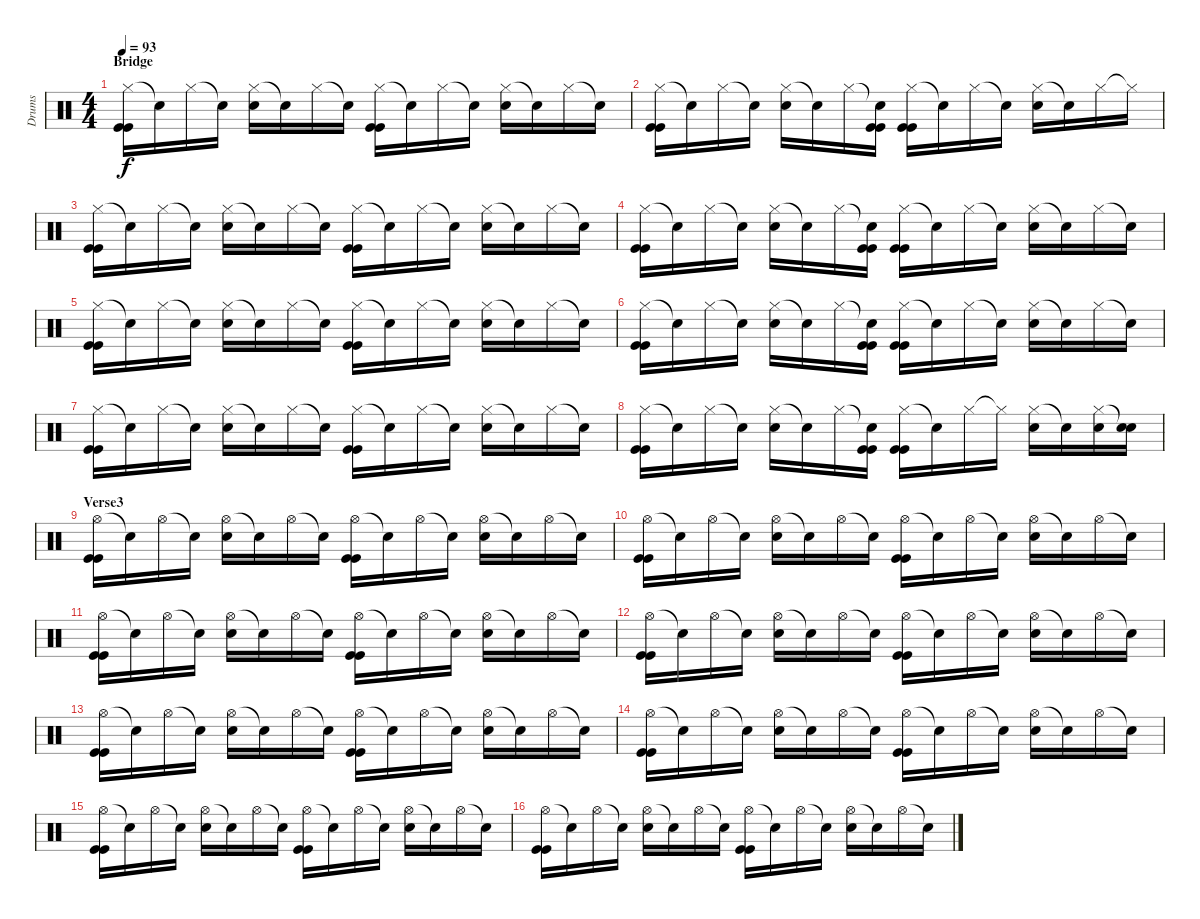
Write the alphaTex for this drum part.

\track ("Drums " "Drums ") {instrument percussion}
\staff {score}
\articulation defaults
\ts (4 4)
\section ("" "Bridge")
\tempo 93
\clef neutral
\ks c
("Hi-Hat (closed)" "Kick (hit)" "Kick (hit)").16{dy f} "Snare (hit)"{t}.16 "Hi-Hat (closed)".16 "Snare (hit)"{t}.16 ("Hi-Hat (closed)" "Snare (hit) 2").16 "Snare (hit)"{t}.16 "Hi-Hat (closed)".16 "Snare (hit)"{t}.16 ("Hi-Hat (closed)" "Kick (hit)" "Kick (hit)").16 "Snare (hit)"{t}.16 "Hi-Hat (closed)".16 "Snare (hit)"{t}.16 ("Hi-Hat (closed)" "Snare (hit) 2").16 "Snare (hit)"{t}.16 "Hi-Hat (closed)".16 "Snare (hit)"{t}.16 |
("Hi-Hat (closed)" "Kick (hit)" "Kick (hit)").16 "Snare (hit)"{t}.16 "Hi-Hat (closed)".16 "Snare (hit)"{t}.16 ("Hi-Hat (closed)" "Snare (hit) 2").16 "Snare (hit)"{t}.16 "Hi-Hat (closed)".16 ("Snare (hit)"{t} "Kick (hit)" "Kick (hit)").16 ("Hi-Hat (closed)" "Kick (hit)" "Kick (hit)").16 "Snare (hit)"{t}.16 "Hi-Hat (closed)".16 "Snare (hit)"{t}.16 ("Hi-Hat (closed)" "Snare (hit) 2").16 "Snare (hit)"{t}.16 "Hi-Hat (closed)".16 "Hi-Hat (closed)"{t}.16 |
("Hi-Hat (closed)" "Kick (hit)" "Kick (hit)").16 "Snare (hit)"{t}.16 "Hi-Hat (closed)".16 "Snare (hit)"{t}.16 ("Hi-Hat (closed)" "Snare (hit) 2").16 "Snare (hit)"{t}.16 "Hi-Hat (closed)".16 "Snare (hit)"{t}.16 ("Hi-Hat (closed)" "Kick (hit)" "Kick (hit)").16 "Snare (hit)"{t}.16 "Hi-Hat (closed)".16 "Snare (hit)"{t}.16 ("Hi-Hat (closed)" "Snare (hit) 2").16 "Snare (hit)"{t}.16 "Hi-Hat (closed)".16 "Snare (hit)"{t}.16 |
("Hi-Hat (closed)" "Kick (hit)" "Kick (hit)").16 "Snare (hit)"{t}.16 "Hi-Hat (closed)".16 "Snare (hit)"{t}.16 ("Hi-Hat (closed)" "Snare (hit) 2").16 "Snare (hit)"{t}.16 "Hi-Hat (closed)".16 ("Snare (hit)"{t} "Kick (hit)" "Kick (hit)").16 ("Hi-Hat (closed)" "Kick (hit)" "Kick (hit)").16 "Snare (hit)"{t}.16 "Hi-Hat (closed)".16 "Snare (hit)"{t}.16 ("Hi-Hat (closed)" "Snare (hit) 2").16 "Snare (hit)"{t}.16 "Hi-Hat (closed)".16 "Snare (hit)"{t}.16 |
("Hi-Hat (closed)" "Kick (hit)" "Kick (hit)").16 "Snare (hit)"{t}.16 "Hi-Hat (closed)".16 "Snare (hit)"{t}.16 ("Hi-Hat (closed)" "Snare (hit) 2").16 "Snare (hit)"{t}.16 "Hi-Hat (closed)".16 "Snare (hit)"{t}.16 ("Hi-Hat (closed)" "Kick (hit)" "Kick (hit)").16 "Snare (hit)"{t}.16 "Hi-Hat (closed)".16 "Snare (hit)"{t}.16 ("Hi-Hat (closed)" "Snare (hit) 2").16 "Snare (hit)"{t}.16 "Hi-Hat (closed)".16 "Snare (hit)"{t}.16 |
("Hi-Hat (closed)" "Kick (hit)" "Kick (hit)").16 "Snare (hit)"{t}.16 "Hi-Hat (closed)".16 "Snare (hit)"{t}.16 ("Hi-Hat (closed)" "Snare (hit) 2").16 "Snare (hit)"{t}.16 "Hi-Hat (closed)".16 ("Snare (hit)"{t} "Kick (hit)" "Kick (hit)").16 ("Hi-Hat (closed)" "Kick (hit)" "Kick (hit)").16 "Snare (hit)"{t}.16 "Hi-Hat (closed)".16 "Snare (hit)"{t}.16 ("Hi-Hat (closed)" "Snare (hit) 2").16 "Snare (hit)"{t}.16 "Hi-Hat (closed)".16 "Snare (hit)"{t}.16 |
("Hi-Hat (closed)" "Kick (hit)" "Kick (hit)").16 "Snare (hit)"{t}.16 "Hi-Hat (closed)".16 "Snare (hit)"{t}.16 ("Hi-Hat (closed)" "Snare (hit) 2").16 "Snare (hit)"{t}.16 "Hi-Hat (closed)".16 "Snare (hit)"{t}.16 ("Hi-Hat (closed)" "Kick (hit)" "Kick (hit)").16 "Snare (hit)"{t}.16 "Hi-Hat (closed)".16 "Snare (hit)"{t}.16 ("Hi-Hat (closed)" "Snare (hit) 2").16 "Snare (hit)"{t}.16 "Hi-Hat (closed)".16 "Snare (hit)"{t}.16 |
("Hi-Hat (closed)" "Kick (hit)" "Kick (hit)").16 "Snare (hit)"{t}.16 "Hi-Hat (closed)".16 "Snare (hit)"{t}.16 ("Hi-Hat (closed)" "Snare (hit) 2").16 "Snare (hit)"{t}.16 "Hi-Hat (closed)".16 ("Snare (hit)"{t} "Kick (hit)" "Kick (hit)").16 ("Hi-Hat (closed)" "Kick (hit)" "Kick (hit)").16 "Snare (hit)"{t}.16 "Hi-Hat (closed)".16 "Hi-Hat (closed)"{t}.16 ("Hi-Hat (closed)" "Snare (hit) 2").16 "Snare (hit)"{t}.16 ("Hi-Hat (closed)" "Snare (hit) 2").16 ("Snare (hit)"{t} "Snare (hit) 2").16 |
\section ("" "Verse3")
("Hi-Hat (open)" "Kick (hit)" "Kick (hit)").16 "Snare (hit)"{t}.16 "Hi-Hat (open)".16 "Snare (hit)"{t}.16 ("Hi-Hat (open)" "Snare (hit) 2").16 "Snare (hit)"{t}.16 "Hi-Hat (open)".16 "Snare (hit)"{t}.16 ("Hi-Hat (open)" "Kick (hit)" "Kick (hit)").16 "Snare (hit)"{t}.16 "Hi-Hat (open)".16 "Snare (hit)"{t}.16 ("Hi-Hat (open)" "Snare (hit) 2").16 "Snare (hit)"{t}.16 "Hi-Hat (open)".16 "Snare (hit)"{t}.16 |
("Hi-Hat (open)" "Kick (hit)" "Kick (hit)").16 "Snare (hit)"{t}.16 "Hi-Hat (open)".16 "Snare (hit)"{t}.16 ("Hi-Hat (open)" "Snare (hit) 2").16 "Snare (hit)"{t}.16 "Hi-Hat (open)".16 "Snare (hit)"{t}.16 ("Hi-Hat (open)" "Kick (hit)" "Kick (hit)").16 "Snare (hit)"{t}.16 "Hi-Hat (open)".16 "Snare (hit)"{t}.16 ("Hi-Hat (open)" "Snare (hit) 2").16 "Snare (hit)"{t}.16 "Hi-Hat (open)".16 "Snare (hit)"{t}.16 |
("Hi-Hat (open)" "Kick (hit)" "Kick (hit)").16 "Snare (hit)"{t}.16 "Hi-Hat (open)".16 "Snare (hit)"{t}.16 ("Hi-Hat (open)" "Snare (hit) 2").16 "Snare (hit)"{t}.16 "Hi-Hat (open)".16 "Snare (hit)"{t}.16 ("Hi-Hat (open)" "Kick (hit)" "Kick (hit)").16 "Snare (hit)"{t}.16 "Hi-Hat (open)".16 "Snare (hit)"{t}.16 ("Hi-Hat (open)" "Snare (hit) 2").16 "Snare (hit)"{t}.16 "Hi-Hat (open)".16 "Snare (hit)"{t}.16 |
("Hi-Hat (open)" "Kick (hit)" "Kick (hit)").16 "Snare (hit)"{t}.16 "Hi-Hat (open)".16 "Snare (hit)"{t}.16 ("Hi-Hat (open)" "Snare (hit) 2").16 "Snare (hit)"{t}.16 "Hi-Hat (open)".16 "Snare (hit)"{t}.16 ("Hi-Hat (open)" "Kick (hit)" "Kick (hit)").16 "Snare (hit)"{t}.16 "Hi-Hat (open)".16 "Snare (hit)"{t}.16 ("Hi-Hat (open)" "Snare (hit) 2").16 "Snare (hit)"{t}.16 "Hi-Hat (open)".16 "Snare (hit)"{t}.16 |
("Hi-Hat (open)" "Kick (hit)" "Kick (hit)").16 "Snare (hit)"{t}.16 "Hi-Hat (open)".16 "Snare (hit)"{t}.16 ("Hi-Hat (open)" "Snare (hit) 2").16 "Snare (hit)"{t}.16 "Hi-Hat (open)".16 "Snare (hit)"{t}.16 ("Hi-Hat (open)" "Kick (hit)" "Kick (hit)").16 "Snare (hit)"{t}.16 "Hi-Hat (open)".16 "Snare (hit)"{t}.16 ("Hi-Hat (open)" "Snare (hit) 2").16 "Snare (hit)"{t}.16 "Hi-Hat (open)".16 "Snare (hit)"{t}.16 |
("Hi-Hat (open)" "Kick (hit)" "Kick (hit)").16 "Snare (hit)"{t}.16 "Hi-Hat (open)".16 "Snare (hit)"{t}.16 ("Hi-Hat (open)" "Snare (hit) 2").16 "Snare (hit)"{t}.16 "Hi-Hat (open)".16 "Snare (hit)"{t}.16 ("Hi-Hat (open)" "Kick (hit)" "Kick (hit)").16 "Snare (hit)"{t}.16 "Hi-Hat (open)".16 "Snare (hit)"{t}.16 ("Hi-Hat (open)" "Snare (hit) 2").16 "Snare (hit)"{t}.16 "Hi-Hat (open)".16 "Snare (hit)"{t}.16 |
("Hi-Hat (open)" "Kick (hit)" "Kick (hit)").16 "Snare (hit)"{t}.16 "Hi-Hat (open)".16 "Snare (hit)"{t}.16 ("Hi-Hat (open)" "Snare (hit) 2").16 "Snare (hit)"{t}.16 "Hi-Hat (open)".16 "Snare (hit)"{t}.16 ("Hi-Hat (open)" "Kick (hit)" "Kick (hit)").16 "Snare (hit)"{t}.16 "Hi-Hat (open)".16 "Snare (hit)"{t}.16 ("Hi-Hat (open)" "Snare (hit) 2").16 "Snare (hit)"{t}.16 "Hi-Hat (open)".16 "Snare (hit)"{t}.16 |
("Hi-Hat (open)" "Kick (hit)" "Kick (hit)").16 "Snare (hit)"{t}.16 "Hi-Hat (open)".16 "Snare (hit)"{t}.16 ("Hi-Hat (open)" "Snare (hit) 2").16 "Snare (hit)"{t}.16 "Hi-Hat (open)".16 "Snare (hit)"{t}.16 ("Hi-Hat (open)" "Kick (hit)" "Kick (hit)").16 "Snare (hit)"{t}.16 "Hi-Hat (open)".16 "Snare (hit)"{t}.16 ("Hi-Hat (open)" "Snare (hit) 2").16 "Snare (hit)"{t}.16 "Hi-Hat (open)".16 "Snare (hit)"{t}.16
